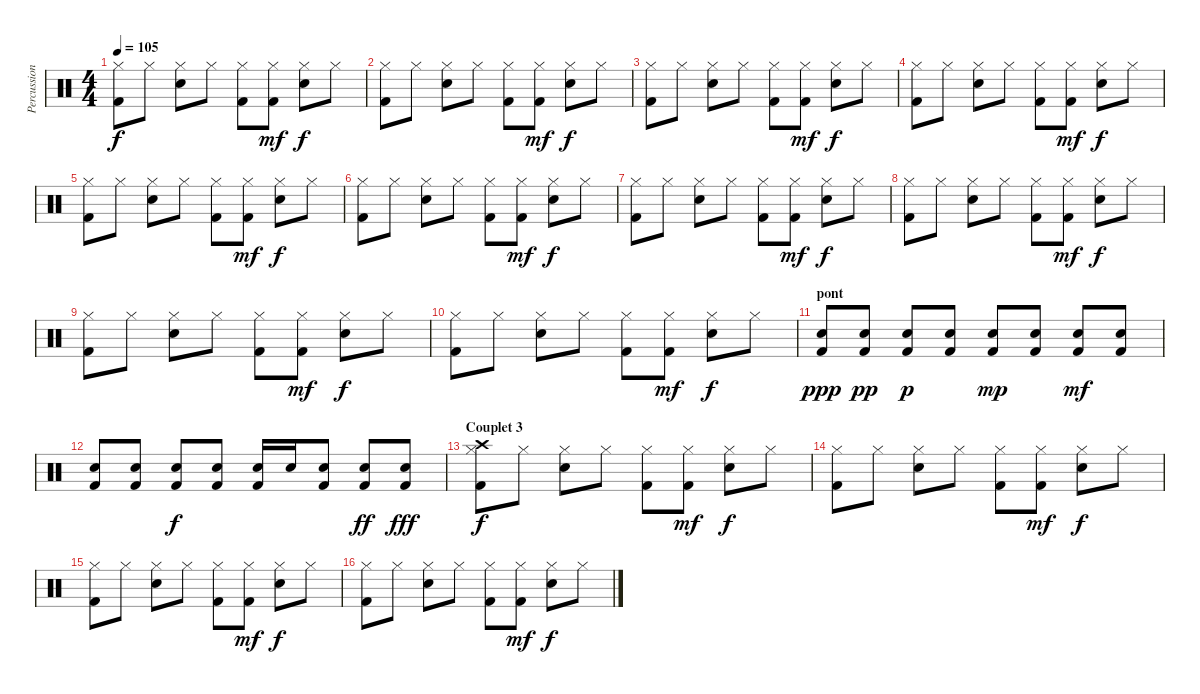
\track ("Percussions" "Percussion") {instrument percussion}
\staff {score}
\articulation defaults
\ts (4 4)
\tempo 105
\clef neutral
\ks c
("Hi-Hat (closed)" "Kick (hit) 2").8{dy f} "Hi-Hat (closed)".8 ("Hi-Hat (closed)" "Electric Snare (hit)").8 "Hi-Hat (closed)".8 ("Hi-Hat (closed)" "Kick (hit) 2").8 ("Hi-Hat (closed)" "Kick (hit) 2").8{dy mf} ("Hi-Hat (closed)" "Electric Snare (hit)").8{dy f} "Hi-Hat (closed)".8 |
("Hi-Hat (closed)" "Kick (hit) 2").8 "Hi-Hat (closed)".8 ("Hi-Hat (closed)" "Electric Snare (hit)").8 "Hi-Hat (closed)".8 ("Hi-Hat (closed)" "Kick (hit) 2").8 ("Hi-Hat (closed)" "Kick (hit) 2").8{dy mf} ("Hi-Hat (closed)" "Electric Snare (hit)").8{dy f} "Hi-Hat (closed)".8 |
("Hi-Hat (closed)" "Kick (hit) 2").8 "Hi-Hat (closed)".8 ("Hi-Hat (closed)" "Electric Snare (hit)").8 "Hi-Hat (closed)".8 ("Hi-Hat (closed)" "Kick (hit) 2").8 ("Hi-Hat (closed)" "Kick (hit) 2").8{dy mf} ("Hi-Hat (closed)" "Electric Snare (hit)").8{dy f} "Hi-Hat (closed)".8 |
("Hi-Hat (closed)" "Kick (hit) 2").8 "Hi-Hat (closed)".8 ("Hi-Hat (closed)" "Electric Snare (hit)").8 "Hi-Hat (closed)".8 ("Hi-Hat (closed)" "Kick (hit) 2").8 ("Hi-Hat (closed)" "Kick (hit) 2").8{dy mf} ("Hi-Hat (closed)" "Electric Snare (hit)").8{dy f} "Hi-Hat (closed)".8 |
("Hi-Hat (closed)" "Kick (hit) 2").8 "Hi-Hat (closed)".8 ("Hi-Hat (closed)" "Electric Snare (hit)").8 "Hi-Hat (closed)".8 ("Hi-Hat (closed)" "Kick (hit) 2").8 ("Hi-Hat (closed)" "Kick (hit) 2").8{dy mf} ("Hi-Hat (closed)" "Electric Snare (hit)").8{dy f} "Hi-Hat (closed)".8 |
("Hi-Hat (closed)" "Kick (hit) 2").8 "Hi-Hat (closed)".8 ("Hi-Hat (closed)" "Electric Snare (hit)").8 "Hi-Hat (closed)".8 ("Hi-Hat (closed)" "Kick (hit) 2").8 ("Hi-Hat (closed)" "Kick (hit) 2").8{dy mf} ("Hi-Hat (closed)" "Electric Snare (hit)").8{dy f} "Hi-Hat (closed)".8 |
("Hi-Hat (closed)" "Kick (hit) 2").8 "Hi-Hat (closed)".8 ("Hi-Hat (closed)" "Electric Snare (hit)").8 "Hi-Hat (closed)".8 ("Hi-Hat (closed)" "Kick (hit) 2").8 ("Hi-Hat (closed)" "Kick (hit) 2").8{dy mf} ("Hi-Hat (closed)" "Electric Snare (hit)").8{dy f} "Hi-Hat (closed)".8 |
("Hi-Hat (closed)" "Kick (hit) 2").8 "Hi-Hat (closed)".8 ("Hi-Hat (closed)" "Electric Snare (hit)").8 "Hi-Hat (closed)".8 ("Hi-Hat (closed)" "Kick (hit) 2").8 ("Hi-Hat (closed)" "Kick (hit) 2").8{dy mf} ("Hi-Hat (closed)" "Electric Snare (hit)").8{dy f} "Hi-Hat (closed)".8 |
("Hi-Hat (closed)" "Kick (hit) 2").8 "Hi-Hat (closed)".8 ("Hi-Hat (closed)" "Electric Snare (hit)").8 "Hi-Hat (closed)".8 ("Hi-Hat (closed)" "Kick (hit) 2").8 ("Hi-Hat (closed)" "Kick (hit) 2").8{dy mf} ("Hi-Hat (closed)" "Electric Snare (hit)").8{dy f} "Hi-Hat (closed)".8 |
("Hi-Hat (closed)" "Kick (hit) 2").8 "Hi-Hat (closed)".8 ("Hi-Hat (closed)" "Electric Snare (hit)").8 "Hi-Hat (closed)".8 ("Hi-Hat (closed)" "Kick (hit) 2").8 ("Hi-Hat (closed)" "Kick (hit) 2").8{dy mf} ("Hi-Hat (closed)" "Electric Snare (hit)").8{dy f} "Hi-Hat (closed)".8 |
\section ("" "pont")
("Electric Snare (hit)" "Kick (hit) 2").8{dy ppp} ("Electric Snare (hit)" "Kick (hit) 2").8{dy pp} ("Electric Snare (hit)" "Kick (hit) 2").8{dy p} ("Electric Snare (hit)" "Kick (hit) 2").8 ("Electric Snare (hit)" "Kick (hit) 2").8{dy mp} ("Electric Snare (hit)" "Kick (hit) 2").8 ("Electric Snare (hit)" "Kick (hit) 2").8{dy mf} ("Electric Snare (hit)" "Kick (hit) 2").8 |
("Electric Snare (hit)" "Kick (hit) 2").8 ("Electric Snare (hit)" "Kick (hit) 2").8 ("Electric Snare (hit)" "Kick (hit) 2").8{dy f} ("Electric Snare (hit)" "Kick (hit) 2").8 ("Electric Snare (hit)" "Kick (hit) 2").16 "Electric Snare (hit)".16 ("Electric Snare (hit)" "Kick (hit) 2").8 ("Electric Snare (hit)" "Kick (hit) 2").8{dy ff} ("Electric Snare (hit)" "Kick (hit) 2").8{dy fff} |
\section ("" "Couplet 3")
("Hi-Hat (closed)" "Crash high (hit)" "Kick (hit) 2").8{dy f} "Hi-Hat (closed)".8 ("Hi-Hat (closed)" "Electric Snare (hit)").8 "Hi-Hat (closed)".8 ("Hi-Hat (closed)" "Kick (hit) 2").8 ("Hi-Hat (closed)" "Kick (hit) 2").8{dy mf} ("Hi-Hat (closed)" "Electric Snare (hit)").8{dy f} "Hi-Hat (closed)".8 |
("Hi-Hat (closed)" "Kick (hit) 2").8 "Hi-Hat (closed)".8 ("Hi-Hat (closed)" "Electric Snare (hit)").8 "Hi-Hat (closed)".8 ("Hi-Hat (closed)" "Kick (hit) 2").8 ("Hi-Hat (closed)" "Kick (hit) 2").8{dy mf} ("Hi-Hat (closed)" "Electric Snare (hit)").8{dy f} "Hi-Hat (closed)".8 |
("Hi-Hat (closed)" "Kick (hit) 2").8 "Hi-Hat (closed)".8 ("Hi-Hat (closed)" "Electric Snare (hit)").8 "Hi-Hat (closed)".8 ("Hi-Hat (closed)" "Kick (hit) 2").8 ("Hi-Hat (closed)" "Kick (hit) 2").8{dy mf} ("Hi-Hat (closed)" "Electric Snare (hit)").8{dy f} "Hi-Hat (closed)".8 |
("Hi-Hat (closed)" "Kick (hit) 2").8 "Hi-Hat (closed)".8 ("Hi-Hat (closed)" "Electric Snare (hit)").8 "Hi-Hat (closed)".8 ("Hi-Hat (closed)" "Kick (hit) 2").8 ("Hi-Hat (closed)" "Kick (hit) 2").8{dy mf} ("Hi-Hat (closed)" "Electric Snare (hit)").8{dy f} "Hi-Hat (closed)".8
